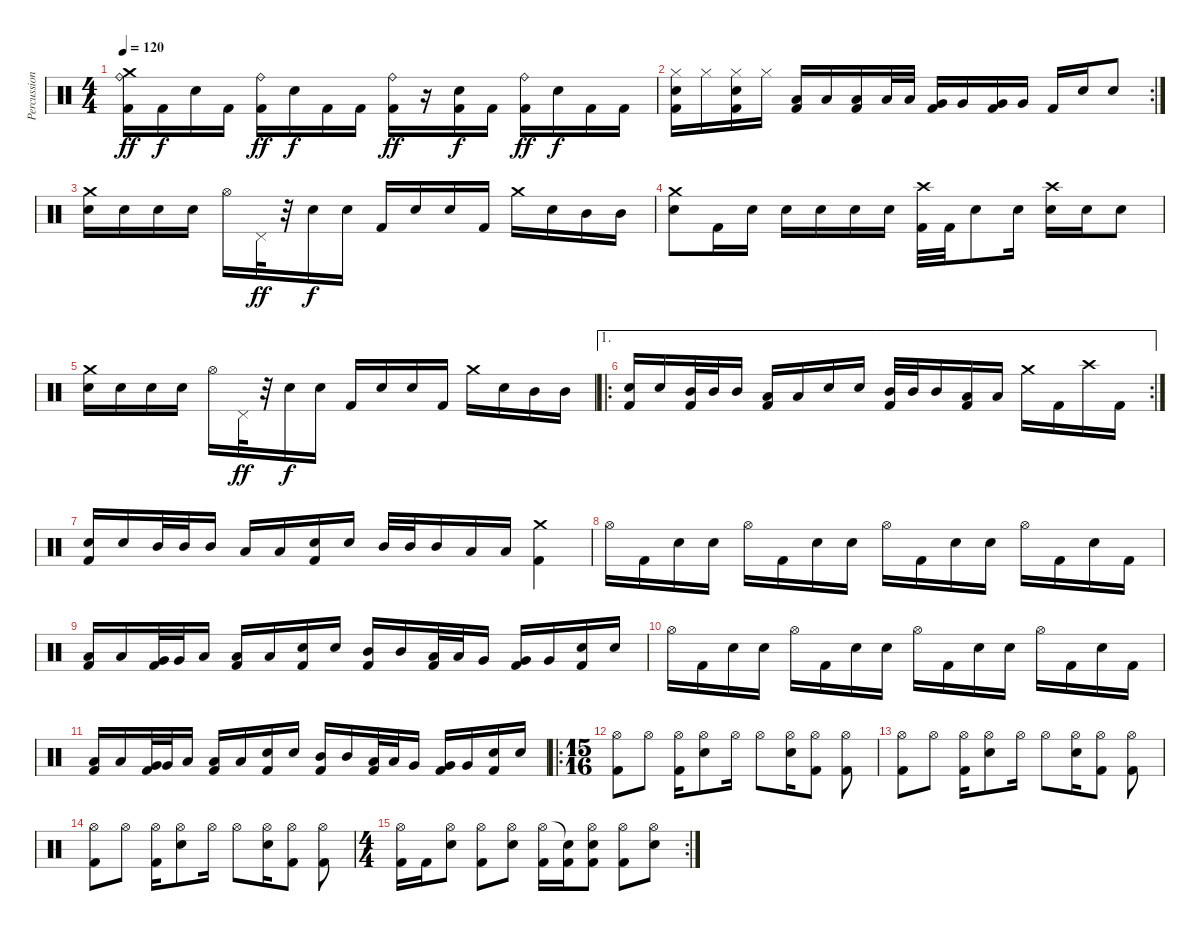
\track ("Percussion" "Percussion") {instrument percussion}
\staff {score}
\articulation defaults
\ts (4 4)
\tempo 120
\clef neutral
\ks c
("Ride (bell)" "Crash medium (hit)" "Kick (hit) 2").16{dy ff} "Kick (hit) 2".16{dy f} "Snare (hit) 2".16 "Kick (hit) 2".16 ("Ride (bell)" "Kick (hit) 2").16{dy ff} "Snare (hit) 2".16{dy f} "Kick (hit) 2".16 "Kick (hit) 2".16 ("Ride (bell)" "Kick (hit) 2").16{dy ff} r.16 ("Snare (hit) 2" "Kick (hit) 2").16{dy f} "Kick (hit) 2".16 ("Ride (bell)" "Kick (hit) 2").16{dy ff} "Snare (hit) 2".16{dy f} "Kick (hit) 2".16 "Kick (hit) 2".16 |
\rc 2
("Hi-Hat (closed)" "Snare (hit) 2" "Kick (hit) 2").16 "Hi-Hat (closed)".16 ("Hi-Hat (closed)" "Snare (hit) 2" "Kick (hit) 2").16 "Hi-Hat (closed)".16 ("Low Tom (hit)" "Kick (hit) 2").16 "Low Tom (hit)".16 ("Low Tom (hit)" "Kick (hit) 2").16 "Low Tom (hit)".32 "Low Tom (hit)".32 ("Very Low Tom (hit)" "Kick (hit) 2").16 "Very Low Tom (hit)".16 ("Very Low Tom (hit)" "Kick (hit) 2").16 "Very Low Tom (hit)".16 "Kick (hit) 2".16 "Snare (hit) 2".16 "Snare (hit) 2".8 |
("Crash medium (hit)" "Snare (hit) 2").16 "Snare (hit) 2".16 "Snare (hit) 2".16 "Snare (hit) 2".16 "Hi-Hat (open)".16 "Pedal Hi-Hat (hit)".32{dy ff} r.32 "Snare (hit) 2".16{dy f} "Snare (hit) 2".16 "Kick (hit) 2".16 "Snare (hit) 2".16 "Snare (hit) 2".16 "Kick (hit) 2".16 "Crash medium (hit)".16 "Snare (hit) 2".16 "Mid Tom (hit)".16 "Mid Tom (hit)".16 |
("Crash medium (hit)" "Snare (hit) 2").8 "Kick (hit) 2".16 "Snare (hit) 2".16 "Snare (hit) 2".16 "Snare (hit) 2".16 "Snare (hit) 2".16 "Snare (hit) 2".16 ("Crash high (hit)" "Kick (hit) 2").32 "Kick (hit) 2".32 "Snare (hit) 2".8 "Snare (hit) 2".16 ("Crash high (hit)" "Snare (hit) 2").16 "Snare (hit) 2".16 "Snare (hit) 2".8 |
("Crash medium (hit)" "Snare (hit) 2").16 "Snare (hit) 2".16 "Snare (hit) 2".16 "Snare (hit) 2".16 "Hi-Hat (open)".16 "Pedal Hi-Hat (hit)".32{dy ff} r.32 "Snare (hit) 2".16{dy f} "Snare (hit) 2".16 "Kick (hit) 2".16 "Snare (hit) 2".16 "Snare (hit) 2".16 "Kick (hit) 2".16 "Crash medium (hit)".16 "Snare (hit) 2".16 "Mid Tom (hit)".16 "Mid Tom (hit)".16 |
\ae 1
\ro
\rc 2
("Snare (hit) 2" "Kick (hit) 2").16 "Snare (hit) 2".16 ("Mid Tom (hit)" "Kick (hit) 2").32 "Mid Tom (hit)".32 "Mid Tom (hit)".16 ("Low Tom (hit)" "Kick (hit) 2").16 "Low Tom (hit)".16 "Snare (hit) 2".16 "Snare (hit) 2".16 ("Mid Tom (hit)" "Kick (hit) 2").32 "Mid Tom (hit)".32 "Mid Tom (hit)".16 ("Low Tom (hit)" "Kick (hit) 2").16 "Low Tom (hit)".16 "Crash medium (hit)".16 "Kick (hit) 2".16 "Crash high (hit)".16 "Kick (hit) 2".16 |
("Snare (hit) 2" "Kick (hit) 2").16 "Snare (hit) 2".16 "Mid Tom (hit)".32 "Mid Tom (hit)".32 "Mid Tom (hit)".16 "Low Tom (hit)".16 "Low Tom (hit)".16 ("Snare (hit) 2" "Kick (hit) 2").16 "Snare (hit) 2".16 "Mid Tom (hit)".32 "Mid Tom (hit)".32 "Mid Tom (hit)".16 "Low Tom (hit)".16 "Low Tom (hit)".16 ("Crash medium (hit)" "Kick (hit) 2").4 |
"Hi-Hat (open)".16 "Kick (hit) 2".16 "Snare (hit) 2".16 "Snare (hit) 2".16 "Hi-Hat (open)".16 "Kick (hit) 2".16 "Snare (hit) 2".16 "Snare (hit) 2".16 "Hi-Hat (open)".16 "Kick (hit) 2".16 "Snare (hit) 2".16 "Snare (hit) 2".16 "Hi-Hat (open)".16 "Kick (hit) 2".16 "Snare (hit) 2".16 "Kick (hit) 2".16 |
("Low Tom (hit)" "Kick (hit) 2").16 "Low Tom (hit)".16 ("Very Low Tom (hit)" "Kick (hit) 2").32 "Very Low Tom (hit)".32 "Low Floor Tom (hit)".16 ("Low Floor Tom (hit)" "Kick (hit) 2").16 "Low Floor Tom (hit)".16 ("Snare (hit) 2" "Kick (hit) 2").16 "Snare (hit) 2".16 ("Mid Tom (hit)" "Kick (hit) 2").16 "Mid Tom (hit)".16 ("Low Tom (hit)" "Kick (hit) 2").32 "Low Tom (hit)".32 "Very Low Tom (hit)".16 ("Very Low Tom (hit)" "Kick (hit) 2").16 "Very Low Tom (hit)".16 ("Snare (hit) 2" "Kick (hit) 2").16 "Snare (hit) 2".16 |
"Hi-Hat (open)".16 "Kick (hit) 2".16 "Snare (hit) 2".16 "Snare (hit) 2".16 "Hi-Hat (open)".16 "Kick (hit) 2".16 "Snare (hit) 2".16 "Snare (hit) 2".16 "Hi-Hat (open)".16 "Kick (hit) 2".16 "Snare (hit) 2".16 "Snare (hit) 2".16 "Hi-Hat (open)".16 "Kick (hit) 2".16 "Snare (hit) 2".16 "Kick (hit) 2".16 |
("Low Tom (hit)" "Kick (hit) 2").16 "Low Tom (hit)".16 ("Very Low Tom (hit)" "Kick (hit) 2").32 "Very Low Tom (hit)".32 "Low Floor Tom (hit)".16 ("Low Floor Tom (hit)" "Kick (hit) 2").16 "Low Floor Tom (hit)".16 ("Snare (hit) 2" "Kick (hit) 2").16 "Snare (hit) 2".16 ("Mid Tom (hit)" "Kick (hit) 2").16 "Mid Tom (hit)".16 ("Low Tom (hit)" "Kick (hit) 2").32 "Low Tom (hit)".32 "Very Low Tom (hit)".16 ("Very Low Tom (hit)" "Kick (hit) 2").16 "Very Low Tom (hit)".16 ("Snare (hit) 2" "Kick (hit) 2").16 "Snare (hit) 2".16 |
\ro
\ts (15 16)
("Hi-Hat (open)" "Kick (hit) 2").8 "Hi-Hat (open)".8 ("Hi-Hat (open)" "Kick (hit) 2").16 ("Hi-Hat (open)" "Snare (hit) 2").8 "Hi-Hat (open)".16 "Hi-Hat (open)".8 ("Hi-Hat (open)" "Snare (hit) 2").16 ("Hi-Hat (open)" "Kick (hit) 2").8 ("Hi-Hat (open)" "Kick (hit) 2").8 |
("Hi-Hat (open)" "Kick (hit) 2").8 "Hi-Hat (open)".8 ("Hi-Hat (open)" "Kick (hit) 2").16 ("Hi-Hat (open)" "Snare (hit) 2").8 "Hi-Hat (open)".16 "Hi-Hat (open)".8 ("Hi-Hat (open)" "Snare (hit) 2").16 ("Hi-Hat (open)" "Kick (hit) 2").8 ("Hi-Hat (open)" "Kick (hit) 2").8 |
("Hi-Hat (open)" "Kick (hit) 2").8 "Hi-Hat (open)".8 ("Hi-Hat (open)" "Kick (hit) 2").16 ("Hi-Hat (open)" "Snare (hit) 2").8 "Hi-Hat (open)".16 "Hi-Hat (open)".8 ("Hi-Hat (open)" "Snare (hit) 2").16 ("Hi-Hat (open)" "Kick (hit) 2").8 ("Hi-Hat (open)" "Kick (hit) 2").8 |
\rc 2
\ts (4 4)
("Hi-Hat (open)" "Kick (hit) 2").16 "Kick (hit) 2".16 ("Hi-Hat (open)" "Snare (hit) 2").8 ("Hi-Hat (open)" "Kick (hit) 2").8 ("Hi-Hat (open)" "Snare (hit) 2").8 ("Hi-Hat (open)" "Kick (hit) 2").16 ("Snare (hit)"{t} "Kick (hit) 2").16 ("Hi-Hat (open)" "Snare (hit) 2" "Kick (hit) 2").8 ("Hi-Hat (open)" "Kick (hit) 2").8 ("Hi-Hat (open)" "Snare (hit) 2").8
